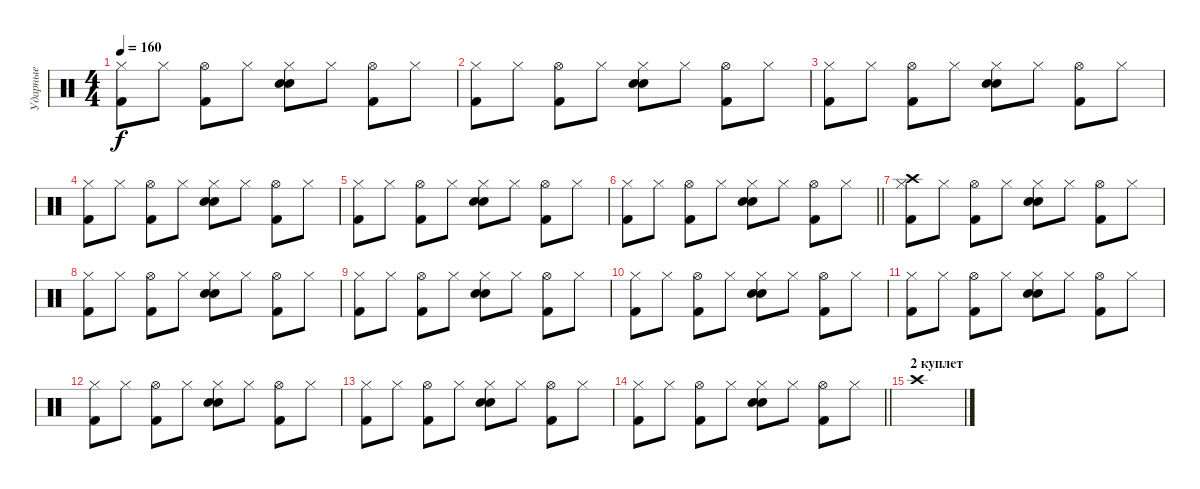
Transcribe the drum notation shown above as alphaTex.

\track ("Ударные" "Ударные") {instrument percussion}
\staff {score}
\articulation defaults
\ts (4 4)
\tempo 160
\clef neutral
\ks c
("Hi-Hat (closed)" "Kick (hit) 2").8{dy f} "Hi-Hat (closed)".8 ("Hi-Hat (open)" "Kick (hit) 2").8 "Hi-Hat (closed)".8 ("Hi-Hat (closed)" "Electric Snare (hit)" "Snare (hit) 2").8 "Hi-Hat (closed)".8 ("Hi-Hat (open)" "Kick (hit) 2").8 "Hi-Hat (closed)".8 |
("Hi-Hat (closed)" "Kick (hit) 2").8 "Hi-Hat (closed)".8 ("Hi-Hat (open)" "Kick (hit) 2").8 "Hi-Hat (closed)".8 ("Hi-Hat (closed)" "Electric Snare (hit)" "Snare (hit) 2").8 "Hi-Hat (closed)".8 ("Hi-Hat (open)" "Kick (hit) 2").8 "Hi-Hat (closed)".8 |
("Hi-Hat (closed)" "Kick (hit) 2").8 "Hi-Hat (closed)".8 ("Hi-Hat (open)" "Kick (hit) 2").8 "Hi-Hat (closed)".8 ("Hi-Hat (closed)" "Snare (hit) 2" "Electric Snare (hit)").8 "Hi-Hat (closed)".8 ("Hi-Hat (open)" "Kick (hit) 2").8 "Hi-Hat (closed)".8 |
("Hi-Hat (closed)" "Kick (hit) 2").8 "Hi-Hat (closed)".8 ("Hi-Hat (open)" "Kick (hit) 2").8 "Hi-Hat (closed)".8 ("Hi-Hat (closed)" "Snare (hit) 2" "Electric Snare (hit)").8 "Hi-Hat (closed)".8 ("Hi-Hat (open)" "Kick (hit) 2").8 "Hi-Hat (closed)".8 |
("Hi-Hat (closed)" "Kick (hit) 2").8 "Hi-Hat (closed)".8 ("Hi-Hat (open)" "Kick (hit) 2").8 "Hi-Hat (closed)".8 ("Hi-Hat (closed)" "Snare (hit) 2" "Electric Snare (hit)").8 "Hi-Hat (closed)".8 ("Hi-Hat (open)" "Kick (hit) 2").8 "Hi-Hat (closed)".8 |
\barLineRight lightlight
("Hi-Hat (closed)" "Kick (hit) 2").8 "Hi-Hat (closed)".8 ("Hi-Hat (open)" "Kick (hit) 2").8 "Hi-Hat (closed)".8 ("Hi-Hat (closed)" "Snare (hit) 2" "Electric Snare (hit)").8 "Hi-Hat (closed)".8 ("Hi-Hat (open)" "Kick (hit) 2").8 "Hi-Hat (closed)".8 |
("Hi-Hat (closed)" "Crash high (hit)" "Kick (hit) 2").8 "Hi-Hat (closed)".8 ("Hi-Hat (open)" "Kick (hit) 2").8 "Hi-Hat (closed)".8 ("Hi-Hat (closed)" "Snare (hit) 2" "Electric Snare (hit)").8 "Hi-Hat (closed)".8 ("Hi-Hat (open)" "Kick (hit) 2").8 "Hi-Hat (closed)".8 |
("Hi-Hat (closed)" "Kick (hit) 2").8 "Hi-Hat (closed)".8 ("Hi-Hat (open)" "Kick (hit) 2").8 "Hi-Hat (closed)".8 ("Hi-Hat (closed)" "Snare (hit) 2" "Electric Snare (hit)").8 "Hi-Hat (closed)".8 ("Hi-Hat (open)" "Kick (hit) 2").8 "Hi-Hat (closed)".8 |
("Hi-Hat (closed)" "Kick (hit) 2").8 "Hi-Hat (closed)".8 ("Hi-Hat (open)" "Kick (hit) 2").8 "Hi-Hat (closed)".8 ("Hi-Hat (closed)" "Snare (hit) 2" "Electric Snare (hit)").8 "Hi-Hat (closed)".8 ("Hi-Hat (open)" "Kick (hit) 2").8 "Hi-Hat (closed)".8 |
("Hi-Hat (closed)" "Kick (hit) 2").8 "Hi-Hat (closed)".8 ("Hi-Hat (open)" "Kick (hit) 2").8 "Hi-Hat (closed)".8 ("Hi-Hat (closed)" "Snare (hit) 2" "Electric Snare (hit)").8 "Hi-Hat (closed)".8 ("Hi-Hat (open)" "Kick (hit) 2").8 "Hi-Hat (closed)".8 |
("Hi-Hat (closed)" "Kick (hit) 2").8 "Hi-Hat (closed)".8 ("Hi-Hat (open)" "Kick (hit) 2").8 "Hi-Hat (closed)".8 ("Hi-Hat (closed)" "Snare (hit) 2" "Electric Snare (hit)").8 "Hi-Hat (closed)".8 ("Hi-Hat (open)" "Kick (hit) 2").8 "Hi-Hat (closed)".8 |
("Hi-Hat (closed)" "Kick (hit) 2").8 "Hi-Hat (closed)".8 ("Hi-Hat (open)" "Kick (hit) 2").8 "Hi-Hat (closed)".8 ("Hi-Hat (closed)" "Snare (hit) 2" "Electric Snare (hit)").8 "Hi-Hat (closed)".8 ("Hi-Hat (open)" "Kick (hit) 2").8 "Hi-Hat (closed)".8 |
("Hi-Hat (closed)" "Kick (hit) 2").8 "Hi-Hat (closed)".8 ("Hi-Hat (open)" "Kick (hit) 2").8 "Hi-Hat (closed)".8 ("Hi-Hat (closed)" "Snare (hit) 2" "Electric Snare (hit)").8 "Hi-Hat (closed)".8 ("Hi-Hat (open)" "Kick (hit) 2").8 "Hi-Hat (closed)".8 |
\barLineRight lightlight
("Hi-Hat (closed)" "Kick (hit) 2").8 "Hi-Hat (closed)".8 ("Hi-Hat (open)" "Kick (hit) 2").8 "Hi-Hat (closed)".8 ("Hi-Hat (closed)" "Snare (hit) 2" "Electric Snare (hit)").8 "Hi-Hat (closed)".8 ("Hi-Hat (open)" "Kick (hit) 2").8 "Hi-Hat (closed)".8 |
\section ("" "2 куплет")
"Crash high (hit)".1
